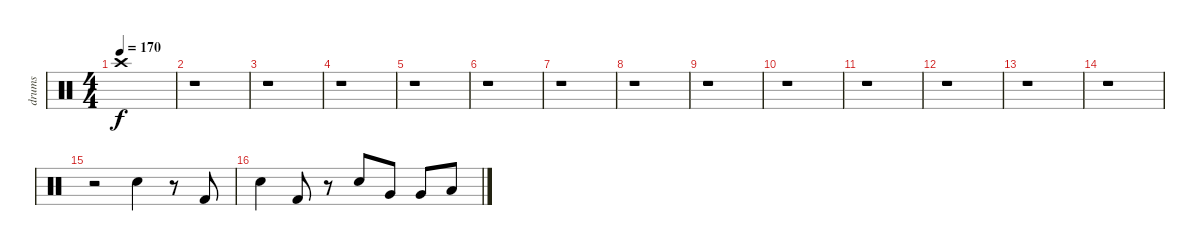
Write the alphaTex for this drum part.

\track ("drums" "drums") {instrument percussion}
\staff {score}
\articulation defaults
\ts (4 4)
\tempo 170
\clef neutral
\ks c "Crash high (hit)".1{dy f}
|
r.1 |
r.1 |
r.1 |
r.1 |
r.1 |
r.1 |
r.1 |
r.1 |
r.1 |
r.1 |
r.1 |
r.1 |
r.1 |
r.2 "Electric Snare (hit)".4 r.8 "Kick (hit) 2".8 |
"Electric Snare (hit)".4 "Kick (hit) 2".8 r.8 "Electric Snare (hit)".8 "Very Low Tom (hit)".8 "Very Low Tom (hit)".8 "Low Floor Tom (hit)".8
